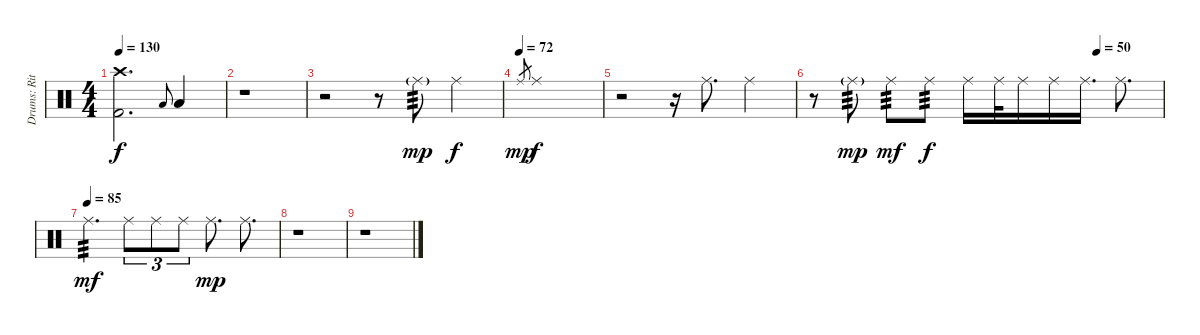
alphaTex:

\track ("Drums: Ritsu Tainaka" "Drums: Rit") {instrument percussion}
\staff {score}
\articulation defaults
\ts (4 4)
\tempo 130
\clef neutral
\ks c
("Crash high (hit)" "Kick (hit) 2").2{d dy f} "Low Floor Tom (hit)".8{gr onbeat} "Low Floor Tom (hit)".4 |
r.1 |
r.2 r.8 "Ride (middle)"{g}.8{tp 3 dy mp} "Ride (middle)".4{dy f} |
\tempo (72)
"Ride (middle)".8{gr dy mp} "Ride (middle)".1{dy f} |
r.2 r.16 "Ride (middle)".8{d} "Ride (middle)".4 |
\tempo (50 0.8125)
r.8 "Ride (middle)"{g}.8{tp 3 dy mp} "Ride (middle)".8{tp 3 dy mf} "Ride (middle)".8{tp 3 dy f} "Ride (middle)".16 "Ride (middle)".32 "Ride (middle)".16 "Ride (middle)".16 "Ride (middle)".16{d} "Ride (middle)".8{d} |
\tempo (85)
"Ride (middle)".4{d tp 3 dy mf} "Ride (middle)".8{tu (3 2)} "Ride (middle)".8{tu (3 2)} "Ride (middle)".8{tu (3 2)} "Ride (middle)".8{d dy mp} "Ride (middle)".8{d} |
r.1{volume 0} |
r.1
